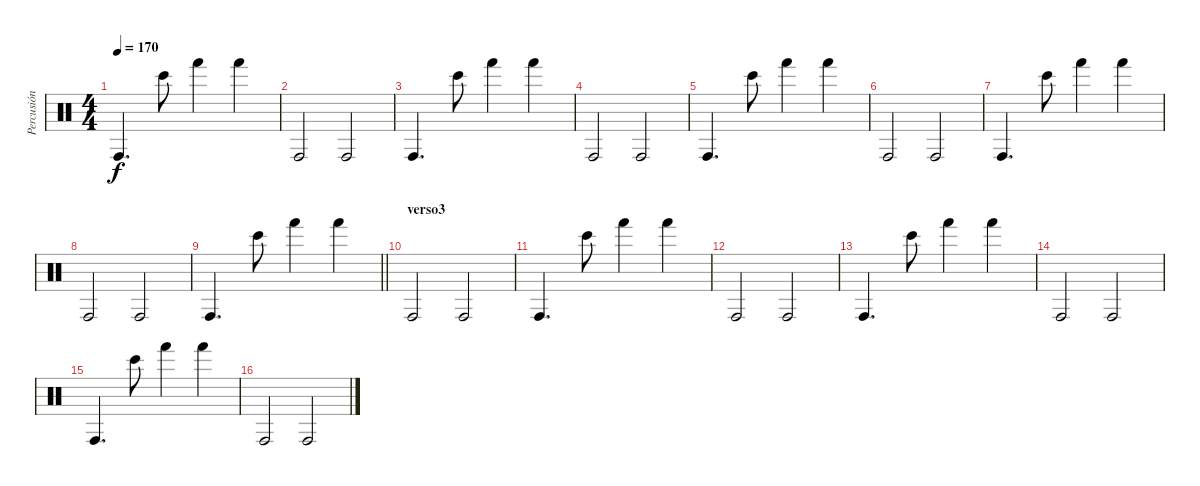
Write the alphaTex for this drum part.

\track ("Percusión" "Percusión") {instrument percussion}
\staff {score}
\articulation defaults
\ts (4 4)
\tempo 170
\clef neutral
\ks c "Conga high (hit)".4{d dy f} "Bongo High (hit)".8 "Hand (hit)".4 "Hand (hit)".4
|
"Conga high (hit)".2 "Conga high (hit)".2 |
"Conga high (hit)".4{d} "Bongo High (hit)".8 "Hand (hit)".4 "Hand (hit)".4 |
"Conga high (hit)".2 "Conga high (hit)".2 |
"Conga high (hit)".4{d} "Bongo High (hit)".8 "Hand (hit)".4 "Hand (hit)".4 |
"Conga high (hit)".2 "Conga high (hit)".2 |
"Conga high (hit)".4{d} "Bongo High (hit)".8 "Hand (hit)".4 "Hand (hit)".4 |
"Conga high (hit)".2 "Conga high (hit)".2 |
\barLineRight lightlight "Conga high (hit)".4{d} "Bongo High (hit)".8 "Hand (hit)".4 "Hand (hit)".4
|
\section ("" "verso3")
"Conga high (hit)".2 "Conga high (hit)".2 |
"Conga high (hit)".4{d} "Bongo High (hit)".8 "Hand (hit)".4 "Hand (hit)".4 |
"Conga high (hit)".2 "Conga high (hit)".2 |
"Conga high (hit)".4{d} "Bongo High (hit)".8 "Hand (hit)".4 "Hand (hit)".4 |
"Conga high (hit)".2 "Conga high (hit)".2 |
"Conga high (hit)".4{d} "Bongo High (hit)".8 "Hand (hit)".4 "Hand (hit)".4 |
"Conga high (hit)".2 "Conga high (hit)".2
